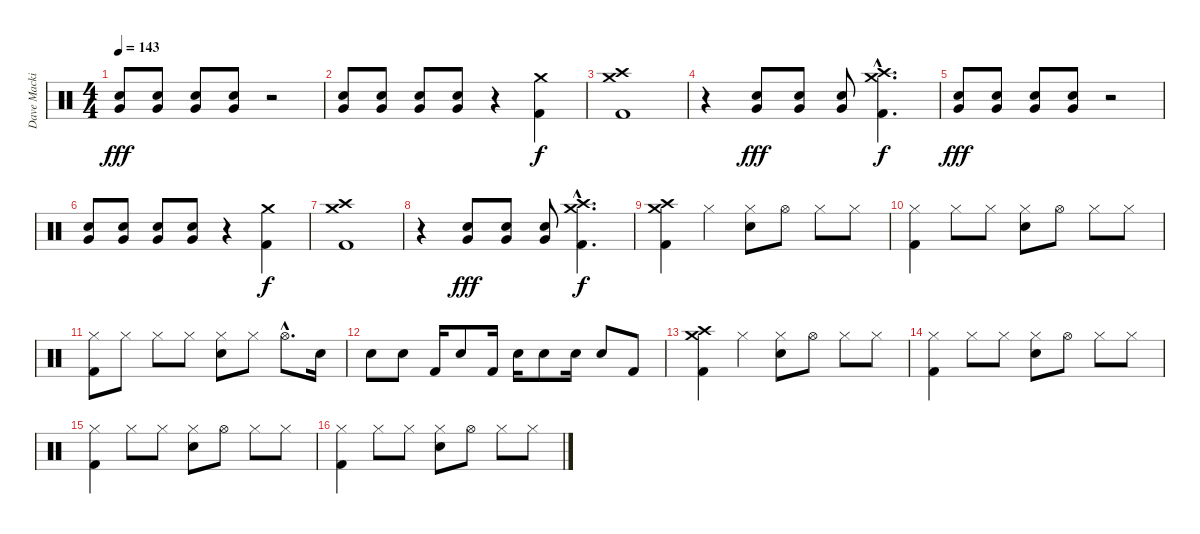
\track ("Dave Mackintosh (Drums)" "Dave Macki") {instrument percussion}
\staff {score}
\articulation defaults
\ts (4 4)
\tempo 143
\clef neutral
\ks c
("Electric Snare (hit)" "Very Low Tom (hit)").8{dy fff} ("Electric Snare (hit)" "Very Low Tom (hit)").8 ("Electric Snare (hit)" "Very Low Tom (hit)").8 ("Electric Snare (hit)" "Very Low Tom (hit)").8 r.2 |
("Electric Snare (hit)" "Very Low Tom (hit)").8 ("Electric Snare (hit)" "Very Low Tom (hit)").8 ("Electric Snare (hit)" "Very Low Tom (hit)").8 ("Electric Snare (hit)" "Very Low Tom (hit)").8 r.4 ("Crash medium (hit)" "Kick (hit) 2").4{dy f} |
("Crash medium (hit)" "Crash high (hit)" "Kick (hit) 2").1 |
r.4 ("Electric Snare (hit)" "Very Low Tom (hit)").8{dy fff} ("Electric Snare (hit)" "Very Low Tom (hit)").8 ("Electric Snare (hit)" "Very Low Tom (hit)").8 ("Crash medium (hit)"{hac} "Crash high (hit)"{hac} "Kick (hit) 2"{hac}).4{d dy f} |
("Electric Snare (hit)" "Very Low Tom (hit)").8{dy fff} ("Electric Snare (hit)" "Very Low Tom (hit)").8 ("Electric Snare (hit)" "Very Low Tom (hit)").8 ("Electric Snare (hit)" "Very Low Tom (hit)").8 r.2 |
("Electric Snare (hit)" "Very Low Tom (hit)").8 ("Electric Snare (hit)" "Very Low Tom (hit)").8 ("Electric Snare (hit)" "Very Low Tom (hit)").8 ("Electric Snare (hit)" "Very Low Tom (hit)").8 r.4 ("Crash medium (hit)" "Kick (hit) 2").4{dy f} |
("Crash medium (hit)" "Crash high (hit)" "Kick (hit) 2").1 |
r.4 ("Electric Snare (hit)" "Very Low Tom (hit)").8{dy fff} ("Electric Snare (hit)" "Very Low Tom (hit)").8 ("Electric Snare (hit)" "Very Low Tom (hit)").8 ("Crash medium (hit)"{hac} "Crash high (hit)"{hac} "Kick (hit) 2"{hac}).4{d dy f} |
("Crash medium (hit)" "Crash high (hit)" "Kick (hit) 2").4 "Hi-Hat (closed)".4 ("Hi-Hat (closed)" "Electric Snare (hit)").8 "Hi-Hat (open)".8 "Hi-Hat (closed)".8 "Hi-Hat (closed)".8 |
("Hi-Hat (closed)" "Kick (hit) 2").4 "Hi-Hat (closed)".8 "Hi-Hat (closed)".8 ("Hi-Hat (closed)" "Electric Snare (hit)").8 "Hi-Hat (open)".8 "Hi-Hat (closed)".8 "Hi-Hat (closed)".8 |
("Hi-Hat (closed)" "Kick (hit) 2").8 "Hi-Hat (closed)".8 "Hi-Hat (closed)".8 "Hi-Hat (closed)".8 ("Hi-Hat (closed)" "Electric Snare (hit)").8 "Hi-Hat (closed)".8 "Hi-Hat (open)"{hac}.8{d} "Electric Snare (hit)".16 |
"Electric Snare (hit)".8 "Electric Snare (hit)".8 "Kick (hit) 2".16 "Electric Snare (hit)".8 "Kick (hit) 2".16 "Electric Snare (hit)".16 "Electric Snare (hit)".8 "Electric Snare (hit)".16 "Electric Snare (hit)".8 "Kick (hit) 2".8 |
("Crash medium (hit)" "Crash high (hit)" "Kick (hit) 2").4 "Hi-Hat (closed)".4 ("Hi-Hat (closed)" "Electric Snare (hit)").8 "Hi-Hat (open)".8 "Hi-Hat (closed)".8 "Hi-Hat (closed)".8 |
("Hi-Hat (closed)" "Kick (hit) 2").4 "Hi-Hat (closed)".8 "Hi-Hat (closed)".8 ("Hi-Hat (closed)" "Electric Snare (hit)").8 "Hi-Hat (open)".8 "Hi-Hat (closed)".8 "Hi-Hat (closed)".8 |
("Hi-Hat (closed)" "Kick (hit) 2").4 "Hi-Hat (closed)".8 "Hi-Hat (closed)".8 ("Hi-Hat (closed)" "Electric Snare (hit)").8 "Hi-Hat (open)".8 "Hi-Hat (closed)".8 "Hi-Hat (closed)".8 |
("Hi-Hat (closed)" "Kick (hit) 2").4 "Hi-Hat (closed)".8 "Hi-Hat (closed)".8 ("Hi-Hat (closed)" "Electric Snare (hit)").8 "Hi-Hat (open)".8 "Hi-Hat (closed)".8 "Hi-Hat (closed)".8
